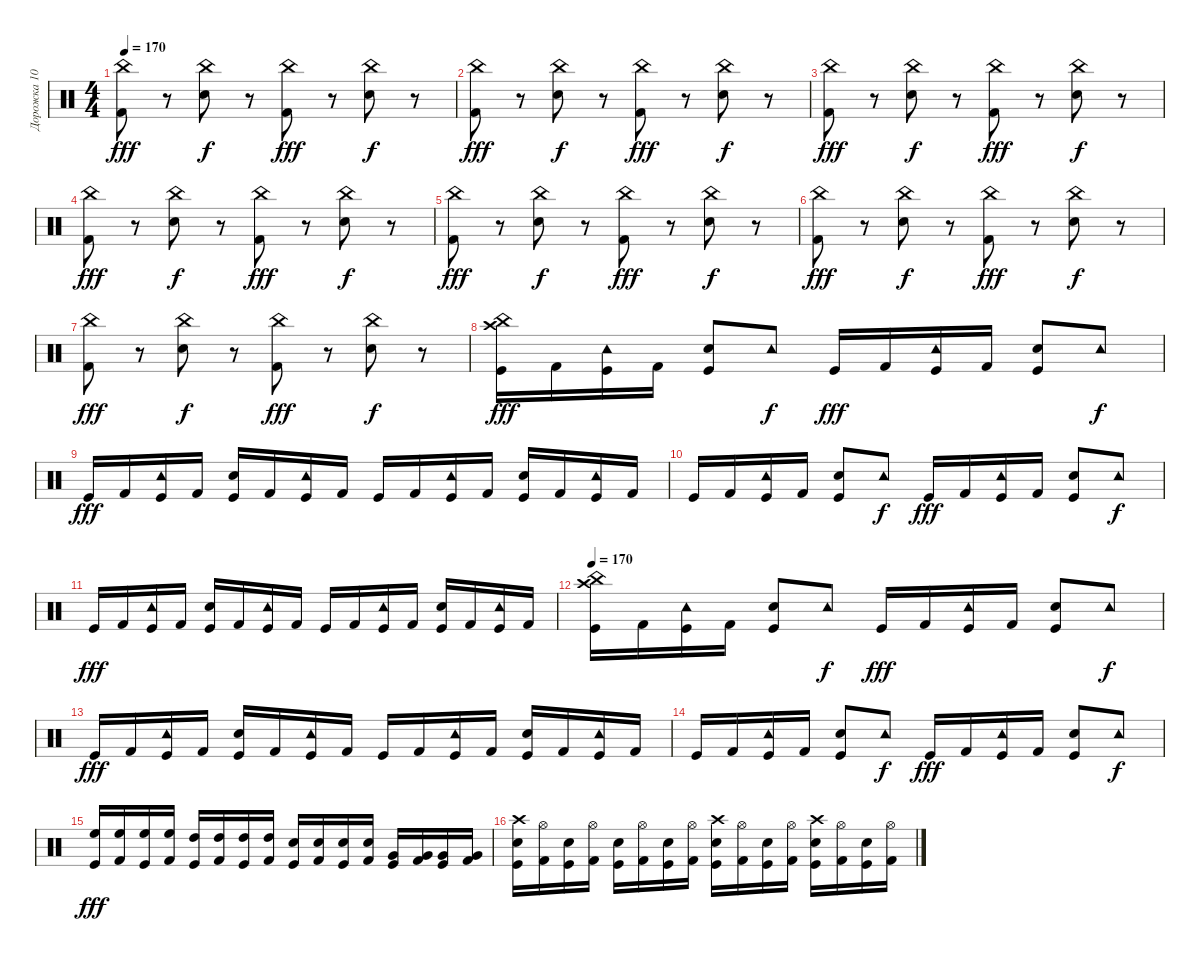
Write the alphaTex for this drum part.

\track ("Дорожка 10" "Дорожка 10") {instrument percussion}
\staff {score}
\articulation defaults
\ts (4 4)
\tempo 170
\clef neutral
\ks c
("China (hit)" "Kick (hit) 2").8{dy fff} r.8 ("China (hit)" "Electric Snare (hit)").8{dy f} r.8 ("Kick (hit) 2" "China (hit)").8{dy fff} r.8 ("China (hit)" "Electric Snare (hit)").8{dy f} r.8 |
("China (hit)" "Kick (hit) 2").8{dy fff} r.8 ("China (hit)" "Electric Snare (hit)").8{dy f} r.8 ("Kick (hit) 2" "China (hit)").8{dy fff} r.8 ("China (hit)" "Electric Snare (hit)").8{dy f} r.8 |
("China (hit)" "Kick (hit) 2").8{dy fff} r.8 ("Electric Snare (hit)" "China (hit)").8{dy f} r.8 ("Kick (hit) 2" "China (hit)").8{dy fff} r.8 ("China (hit)" "Electric Snare (hit)").8{dy f} r.8 |
("China (hit)" "Kick (hit) 2").8{dy fff} r.8 ("China (hit)" "Electric Snare (hit)").8{dy f} r.8 ("Kick (hit) 2" "China (hit)").8{dy fff} r.8 ("China (hit)" "Electric Snare (hit)").8{dy f} r.8 |
("Kick (hit) 2" "China (hit)").8{dy fff} r.8 ("China (hit)" "Electric Snare (hit)").8{dy f} r.8 ("Kick (hit) 2" "China (hit)").8{dy fff} r.8 ("Electric Snare (hit)" "China (hit)").8{dy f} r.8 |
("China (hit)" "Kick (hit) 2").8{dy fff} r.8 ("Electric Snare (hit)" "China (hit)").8{dy f} r.8 ("China (hit)" "Kick (hit) 2").8{dy fff} r.8 ("Electric Snare (hit)" "China (hit)").8{dy f} r.8 |
("China (hit)" "Kick (hit) 2").8{dy fff} r.8 ("Electric Snare (hit)" "China (hit)").8{dy f} r.8 ("Kick (hit) 2" "China (hit)").8{dy fff} r.8 ("Electric Snare (hit)" "China (hit)").8{dy f} r.8 |
("Kick (hit)" "China (hit)" "Crash high (hit)").16{dy fff} "Kick (hit) 2".16 ("Kick (hit)" "Tambourine (hit)").16 "Kick (hit) 2".16 ("Electric Snare (hit)" "Kick (hit)").8 "Tambourine (hit)".8{dy f} "Kick (hit)".16{dy fff} "Kick (hit) 2".16 ("Kick (hit)" "Tambourine (hit)").16 "Kick (hit) 2".16 ("Electric Snare (hit)" "Kick (hit)").8 "Tambourine (hit)".8{dy f} |
"Kick (hit)".16{dy fff} "Kick (hit) 2".16 ("Kick (hit)" "Tambourine (hit)").16 "Kick (hit) 2".16 ("Kick (hit)" "Electric Snare (hit)").16 "Kick (hit) 2".16 ("Kick (hit)" "Tambourine (hit)").16 "Kick (hit) 2".16 "Kick (hit)".16 "Kick (hit) 2".16 ("Kick (hit)" "Tambourine (hit)").16 "Kick (hit) 2".16 ("Electric Snare (hit)" "Kick (hit)").16 "Kick (hit) 2".16 ("Kick (hit)" "Tambourine (hit)").16 "Kick (hit) 2".16 |
"Kick (hit)".16 "Kick (hit) 2".16 ("Kick (hit)" "Tambourine (hit)").16 "Kick (hit) 2".16 ("Electric Snare (hit)" "Kick (hit)").8 "Tambourine (hit)".8{dy f} "Kick (hit)".16{dy fff} "Kick (hit) 2".16 ("Kick (hit)" "Tambourine (hit)").16 "Kick (hit) 2".16 ("Kick (hit)" "Electric Snare (hit)").8 "Tambourine (hit)".8{dy f} |
"Kick (hit)".16{dy fff} "Kick (hit) 2".16 ("Kick (hit)" "Tambourine (hit)").16 "Kick (hit) 2".16 ("Electric Snare (hit)" "Kick (hit)").16 "Kick (hit) 2".16 ("Tambourine (hit)" "Kick (hit)").16 "Kick (hit) 2".16 "Kick (hit)".16 "Kick (hit) 2".16 ("Tambourine (hit)" "Kick (hit)").16 "Kick (hit) 2".16 ("Kick (hit)" "Electric Snare (hit)").16 "Kick (hit) 2".16 ("Kick (hit)" "Tambourine (hit)").16 "Kick (hit) 2".16 |
\tempo 170
("China (hit)" "Kick (hit)" "Crash high (hit)").16 "Kick (hit) 2".16 ("Tambourine (hit)" "Kick (hit)").16 "Kick (hit) 2".16 ("Kick (hit)" "Electric Snare (hit)").8 "Tambourine (hit)".8{dy f} "Kick (hit)".16{dy fff} "Kick (hit) 2".16 ("Tambourine (hit)" "Kick (hit)").16 "Kick (hit) 2".16 ("Electric Snare (hit)" "Kick (hit)").8 "Tambourine (hit)".8{dy f} |
"Kick (hit)".16{dy fff} "Kick (hit) 2".16 ("Tambourine (hit)" "Kick (hit)").16 "Kick (hit) 2".16 ("Kick (hit)" "Electric Snare (hit)").16 "Kick (hit) 2".16 ("Tambourine (hit)" "Kick (hit)").16 "Kick (hit) 2".16 "Kick (hit)".16 "Kick (hit) 2".16 ("Tambourine (hit)" "Kick (hit)").16 "Kick (hit) 2".16 ("Kick (hit)" "Electric Snare (hit)").16 "Kick (hit) 2".16 ("Tambourine (hit)" "Kick (hit)").16 "Kick (hit) 2".16 |
"Kick (hit)".16 "Kick (hit) 2".16 ("Kick (hit)" "Tambourine (hit)").16 "Kick (hit) 2".16 ("Electric Snare (hit)" "Kick (hit)").8 "Tambourine (hit)".8{dy f} "Kick (hit)".16{dy fff} "Kick (hit) 2".16 ("Kick (hit)" "Tambourine (hit)").16 "Kick (hit) 2".16 ("Electric Snare (hit)" "Kick (hit)").8 "Tambourine (hit)".8{dy f} |
("Kick (hit)" "High Floor Tom (hit)").16{dy fff} ("High Floor Tom (hit)" "Kick (hit) 2").16 ("High Floor Tom (hit)" "Kick (hit)").16 ("Kick (hit) 2" "High Floor Tom (hit)").16 ("High Tom (hit)" "Kick (hit)").16 ("Kick (hit) 2" "High Tom (hit)").16 ("Kick (hit)" "High Tom (hit)").16 ("High Tom (hit)" "Kick (hit) 2").16 ("Electric Snare (hit)" "Kick (hit)").16 ("Electric Snare (hit)" "Kick (hit) 2").16 ("Kick (hit)" "Electric Snare (hit)").16 ("Kick (hit) 2" "Electric Snare (hit)").16 ("Kick (hit)" "Very Low Tom (hit)").16 ("Very Low Tom (hit)" "Kick (hit) 2").16 ("Very Low Tom (hit)" "Kick (hit)").16 ("Kick (hit) 2" "Very Low Tom (hit)").16 |
("Kick (hit)" "Crash high (hit)" "Electric Snare (hit)").16 ("Kick (hit) 2" "Hi-Hat (open)").16 ("Electric Snare (hit)" "Kick (hit)").16 ("Kick (hit) 2" "Hi-Hat (open)").16 ("Electric Snare (hit)" "Kick (hit)").16 ("Hi-Hat (open)" "Kick (hit) 2").16 ("Electric Snare (hit)" "Kick (hit)").16 ("Hi-Hat (open)" "Kick (hit) 2").16 ("Electric Snare (hit)" "Kick (hit)" "Crash high (hit)").16 ("Kick (hit) 2" "Hi-Hat (open)").16 ("Electric Snare (hit)" "Kick (hit)").16 ("Kick (hit) 2" "Hi-Hat (open)").16 ("Kick (hit)" "Crash high (hit)" "Electric Snare (hit)").16 ("Kick (hit) 2" "Hi-Hat (open)").16 ("Electric Snare (hit)" "Kick (hit)").16 ("Hi-Hat (open)" "Kick (hit) 2").16
